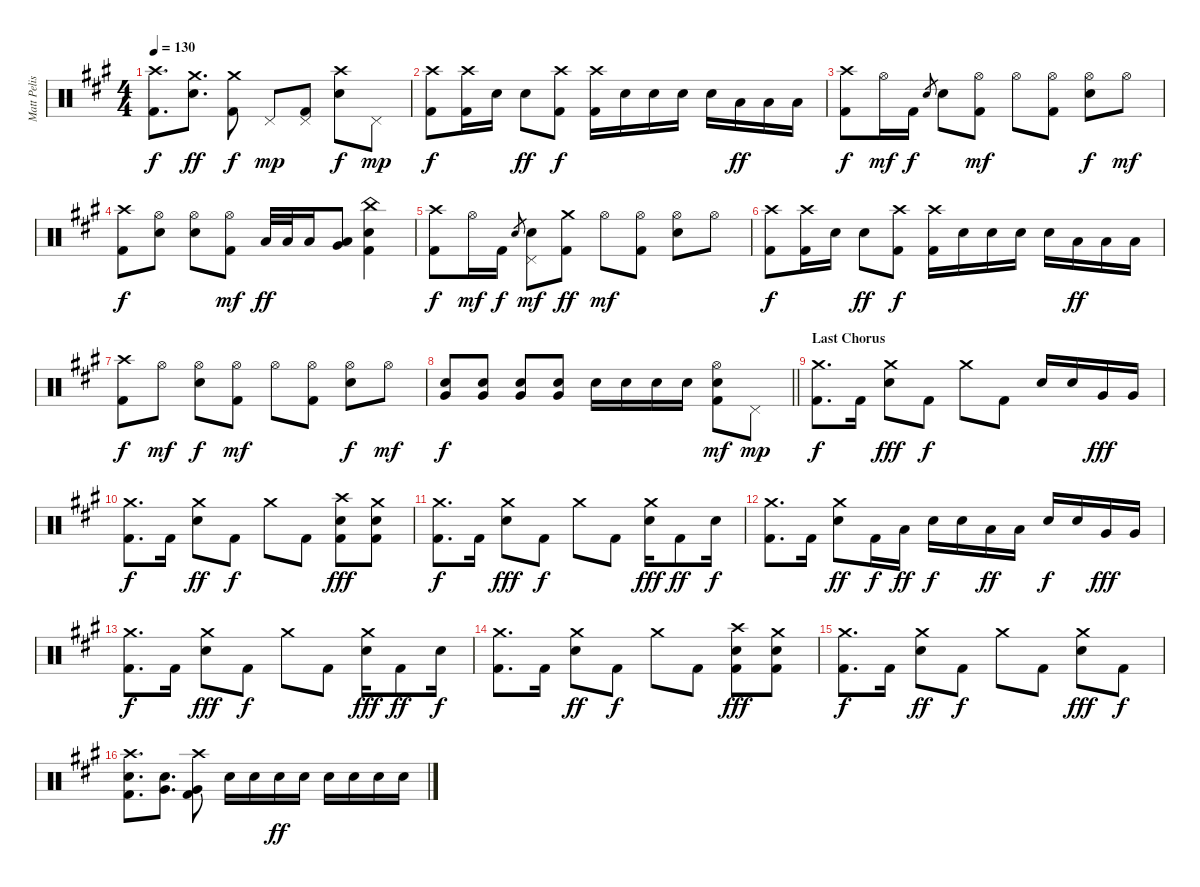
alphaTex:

\track ("Matt Pelissier" "Matt Pelis") {instrument percussion}
\staff {score}
\articulation defaults
\ts (4 4)
\tempo 130
\clef neutral
\ks a
("Crash high (hit)" "Kick (hit) 2").8{d dy f} ("Crash medium (hit)" "Snare (hit) 2").8{d dy ff} ("Crash medium (hit)" "Kick (hit) 2").8{dy f} "Pedal Hi-Hat (hit)".8{dy mp} ("Pedal Hi-Hat (hit)" "Kick (hit) 2").8 ("Crash high (hit)" "Snare (hit) 2").8{dy f} "Pedal Hi-Hat (hit)".8{dy mp} |
("Crash high (hit)" "Kick (hit) 2").8{dy f} ("Crash high (hit)" "Kick (hit) 2").16 "Snare (hit) 2".16 "Snare (hit) 2".8{dy ff} ("Crash high (hit)" "Kick (hit) 2").8{dy f} ("Crash high (hit)" "Kick (hit) 2").16 "Snare (hit) 2".16 "Snare (hit) 2".16 "Snare (hit) 2".16 "Snare (hit) 2".16 "Low Tom (hit)".16{dy ff} "Low Tom (hit)".16 "Low Tom (hit)".16 |
("Crash high (hit)" "Kick (hit) 2").8{dy f} "Hi-Hat (open)".16{dy mf} "Kick (hit) 2".16{dy f} "Snare (hit) 2".8{gr} "Snare (hit) 2".8 ("Hi-Hat (open)" "Kick (hit) 2").8{dy mf} "Hi-Hat (open)".8 ("Hi-Hat (open)" "Kick (hit) 2").8 ("Hi-Hat (open)" "Snare (hit) 2").8{dy f} "Hi-Hat (open)".8{dy mf} |
("Crash high (hit)" "Kick (hit) 2").8{dy f} ("Hi-Hat (open)" "Snare (hit) 2").8 ("Hi-Hat (open)" "Snare (hit) 2").8 ("Hi-Hat (open)" "Kick (hit) 2").8{dy mf} "Low Tom (hit)".32{dy ff} "Low Tom (hit)".32 "Low Tom (hit)".16 ("Low Tom (hit)" "Very Low Tom (hit)").8 ("China (hit)" "Snare (hit) 2" "Kick (hit) 2").4 |
("Crash high (hit)" "Kick (hit) 2").8{dy f} "Hi-Hat (open)".16{dy mf} "Kick (hit) 2".16{dy f} "Snare (hit) 2".8{gr} ("Snare (hit) 2" "Pedal Hi-Hat (hit)").8{dy mf} ("Crash medium (hit)" "Kick (hit) 2").8{dy ff} "Hi-Hat (open)".8{dy mf} ("Hi-Hat (open)" "Kick (hit) 2").8 ("Hi-Hat (open)" "Snare (hit) 2").8 "Hi-Hat (open)".8 |
("Crash high (hit)" "Kick (hit) 2").8{dy f} ("Crash high (hit)" "Kick (hit) 2").16 "Snare (hit) 2".16 "Snare (hit) 2".8{dy ff} ("Crash high (hit)" "Kick (hit) 2").8{dy f} ("Crash high (hit)" "Kick (hit) 2").16 "Snare (hit) 2".16 "Snare (hit) 2".16 "Snare (hit) 2".16 "Snare (hit) 2".16 "Low Tom (hit)".16{dy ff} "Low Tom (hit)".16 "Low Tom (hit)".16 |
("Crash high (hit)" "Kick (hit) 2").8{dy f} "Hi-Hat (open)".8{dy mf} ("Hi-Hat (open)" "Snare (hit) 2").8{dy f} ("Hi-Hat (open)" "Kick (hit) 2").8{dy mf} "Hi-Hat (open)".8 ("Hi-Hat (open)" "Kick (hit) 2").8 ("Hi-Hat (open)" "Snare (hit) 2").8{dy f} "Hi-Hat (open)".8{dy mf} |
\barLineRight lightlight
("Snare (hit) 2" "Very Low Tom (hit)").8{dy f} ("Snare (hit) 2" "Very Low Tom (hit)").8 ("Snare (hit) 2" "Very Low Tom (hit)").8 ("Snare (hit) 2" "Very Low Tom (hit)").8 "Snare (hit) 2".16 "Snare (hit) 2".16 "Snare (hit) 2".16 "Snare (hit) 2".16 ("Hi-Hat (open)" "Snare (hit) 2" "Kick (hit) 2").8{dy mf} "Pedal Hi-Hat (hit)".8{dy mp} |
\section ("" "Last Chorus")
("Crash medium (hit)" "Kick (hit) 2").8{d dy f} "Kick (hit) 2".16 ("Crash medium (hit)" "Snare (hit) 2").8{dy fff} "Kick (hit) 2".8{dy f} "Crash medium (hit)".8 "Kick (hit) 2".8 "Snare (hit) 2".16 "Snare (hit) 2".16 "Very Low Tom (hit)".16{dy fff} "Very Low Tom (hit)".16 |
("Crash medium (hit)" "Kick (hit) 2").8{d dy f} "Kick (hit) 2".16 ("Crash medium (hit)" "Snare (hit) 2").8{dy ff} "Kick (hit) 2".8{dy f} "Crash medium (hit)".8 "Kick (hit) 2".8 ("Crash high (hit)" "Snare (hit) 2" "Kick (hit) 2").8{dy fff} ("Crash medium (hit)" "Snare (hit) 2" "Kick (hit) 2").8 |
("Crash medium (hit)" "Kick (hit) 2").8{d dy f} "Kick (hit) 2".16 ("Crash medium (hit)" "Snare (hit) 2").8{dy fff} "Kick (hit) 2".8{dy f} "Crash medium (hit)".8 "Kick (hit) 2".8 ("Crash medium (hit)" "Snare (hit) 2").16{dy fff} "Kick (hit) 2".8{dy ff} "Snare (hit) 2".16{dy f} |
("Crash medium (hit)" "Kick (hit) 2").8{d} "Kick (hit) 2".16 ("Crash medium (hit)" "Snare (hit) 2").8{dy ff} "Kick (hit) 2".16{dy f} "Low Tom (hit)".16{dy ff} "Snare (hit) 2".16{dy f} "Snare (hit) 2".16 "Low Tom (hit)".16{dy ff} "Low Tom (hit)".16 "Snare (hit) 2".16{dy f} "Snare (hit) 2".16 "Very Low Tom (hit)".16{dy fff} "Very Low Tom (hit)".16 |
("Crash medium (hit)" "Kick (hit) 2").8{d dy f} "Kick (hit) 2".16 ("Crash medium (hit)" "Snare (hit) 2").8{dy fff} "Kick (hit) 2".8{dy f} "Crash medium (hit)".8 "Kick (hit) 2".8 ("Crash medium (hit)" "Snare (hit) 2").16{dy fff} "Kick (hit) 2".8{dy ff} "Snare (hit) 2".16{dy f} |
("Crash medium (hit)" "Kick (hit) 2").8{d} "Kick (hit) 2".16 ("Crash medium (hit)" "Snare (hit) 2").8{dy ff} "Kick (hit) 2".8{dy f} "Crash medium (hit)".8 "Kick (hit) 2".8 ("Crash high (hit)" "Snare (hit) 2" "Kick (hit) 2").8{dy fff} ("Crash medium (hit)" "Snare (hit) 2" "Kick (hit) 2").8 |
("Crash medium (hit)" "Kick (hit) 2").8{d dy f} "Kick (hit) 2".16 ("Crash medium (hit)" "Snare (hit) 2").8{dy ff} "Kick (hit) 2".8{dy f} "Crash medium (hit)".8 "Kick (hit) 2".8 ("Crash medium (hit)" "Snare (hit) 2").8{dy fff} "Kick (hit) 2".8{dy f} |
("Crash high (hit)" "Snare (hit) 2" "Kick (hit) 2").8{d} ("Snare (hit) 2" "Very Low Tom (hit)").8{d} ("Crash high (hit)" "Very Low Tom (hit)" "Kick (hit) 2").8 "Snare (hit) 2".16 "Snare (hit) 2".16 "Snare (hit) 2".16{dy ff} "Snare (hit) 2".16 "Snare (hit) 2".16 "Snare (hit) 2".16 "Snare (hit) 2".16 "Snare (hit) 2".16
